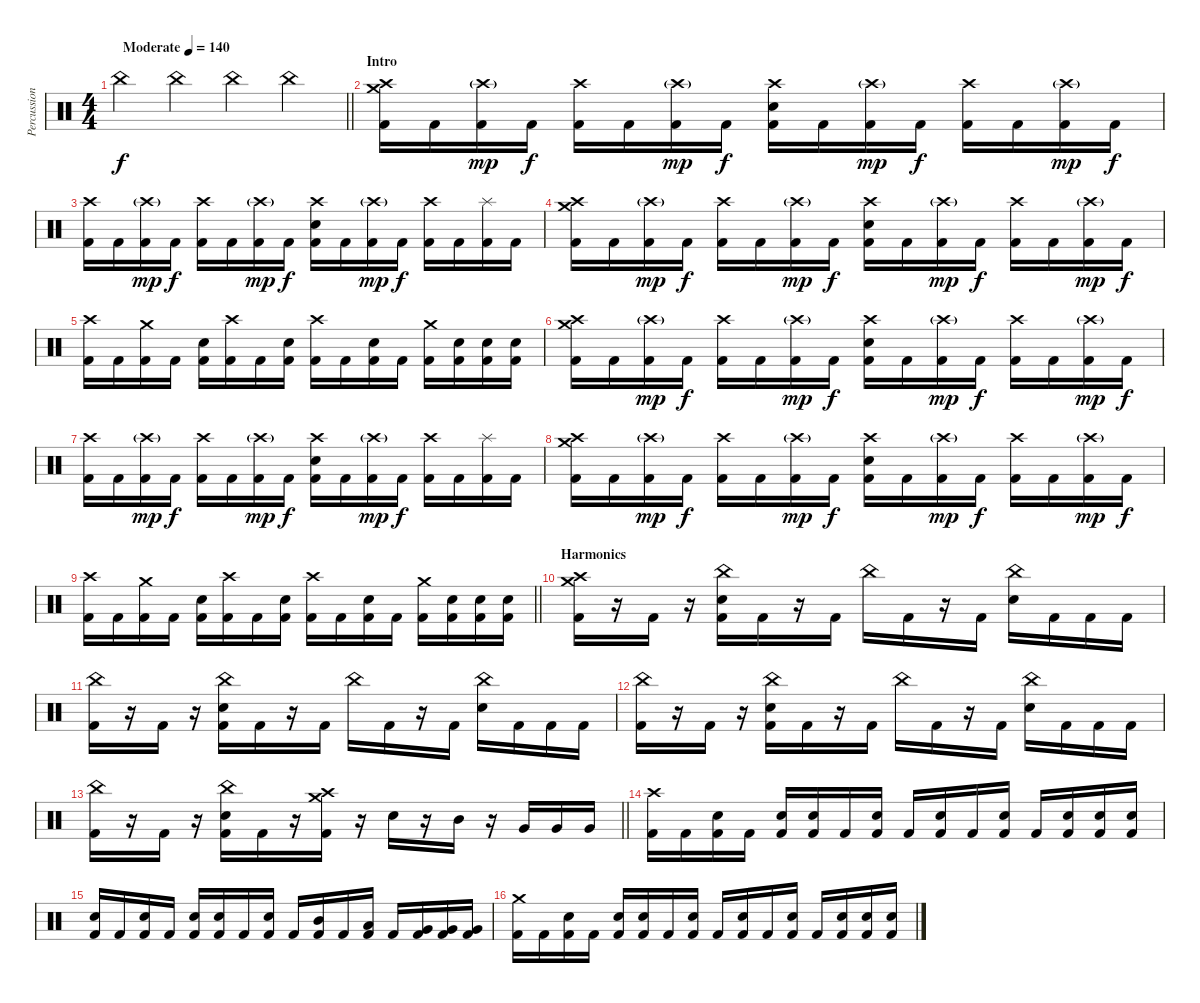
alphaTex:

\track ("Percussion" "Percussion") {instrument percussion}
\staff {score}
\articulation defaults
\ts (4 4)
\tempo (140 "Moderate")
\clef neutral
\barLineRight lightlight
\ks c "China (hit)".4{dy f} "China (hit)".4 "China (hit)".4 "China (hit)".4
|
\section ("" "Intro")
("Crash high (hit)" "Crash medium (hit)" "Kick (hit) 2").16 "Kick (hit) 2".16 ("Crash high (hit)"{g} "Kick (hit) 2").16{dy mp} "Kick (hit) 2".16{dy f} ("Crash high (hit)" "Kick (hit) 2").16 "Kick (hit) 2".16 ("Crash high (hit)"{g} "Kick (hit) 2").16{dy mp} "Kick (hit) 2".16{dy f} ("Crash high (hit)" "Electric Snare (hit)" "Kick (hit) 2").16 "Kick (hit) 2".16 ("Crash high (hit)"{g} "Kick (hit) 2").16{dy mp} "Kick (hit) 2".16{dy f} ("Crash high (hit)" "Kick (hit) 2").16 "Kick (hit) 2".16 ("Crash high (hit)"{g} "Kick (hit) 2").16{dy mp} "Kick (hit) 2".16{dy f} |
("Crash high (hit)" "Kick (hit) 2").16 "Kick (hit) 2".16 ("Crash high (hit)"{g} "Kick (hit) 2").16{dy mp} "Kick (hit) 2".16{dy f} ("Crash high (hit)" "Kick (hit) 2").16 "Kick (hit) 2".16 ("Crash high (hit)"{g} "Kick (hit) 2").16{dy mp} "Kick (hit) 2".16{dy f} ("Crash high (hit)" "Electric Snare (hit)" "Kick (hit) 2").16 "Kick (hit) 2".16 ("Crash high (hit)"{g} "Kick (hit) 2").16{dy mp} "Kick (hit) 2".16{dy f} ("Crash high (hit)" "Kick (hit) 2").16 "Kick (hit) 2".16 ("Splash (hit)" "Kick (hit) 2").16 "Kick (hit) 2".16 |
("Crash high (hit)" "Crash medium (hit)" "Kick (hit) 2").16 "Kick (hit) 2".16 ("Crash high (hit)"{g} "Kick (hit) 2").16{dy mp} "Kick (hit) 2".16{dy f} ("Crash high (hit)" "Kick (hit) 2").16 "Kick (hit) 2".16 ("Crash high (hit)"{g} "Kick (hit) 2").16{dy mp} "Kick (hit) 2".16{dy f} ("Crash high (hit)" "Electric Snare (hit)" "Kick (hit) 2").16 "Kick (hit) 2".16 ("Crash high (hit)"{g} "Kick (hit) 2").16{dy mp} "Kick (hit) 2".16{dy f} ("Crash high (hit)" "Kick (hit) 2").16 "Kick (hit) 2".16 ("Crash high (hit)"{g} "Kick (hit) 2").16{dy mp} "Kick (hit) 2".16{dy f} |
("Crash high (hit)" "Kick (hit) 2").16 "Kick (hit) 2".16 ("Crash medium (hit)" "Kick (hit) 2").16 "Kick (hit) 2".16 ("Electric Snare (hit)" "Kick (hit) 2").16 ("Crash high (hit)" "Kick (hit) 2").16 "Kick (hit) 2".16 ("Electric Snare (hit)" "Kick (hit) 2").16 ("Crash high (hit)" "Kick (hit) 2").16 "Kick (hit) 2".16 ("Electric Snare (hit)" "Kick (hit) 2").16 "Kick (hit) 2".16 ("Crash medium (hit)" "Kick (hit) 2").16 ("Electric Snare (hit)" "Kick (hit) 2").16 ("Electric Snare (hit)" "Kick (hit) 2").16 ("Electric Snare (hit)" "Kick (hit) 2").16 |
("Crash high (hit)" "Crash medium (hit)" "Kick (hit) 2").16 "Kick (hit) 2".16 ("Crash high (hit)"{g} "Kick (hit) 2").16{dy mp} "Kick (hit) 2".16{dy f} ("Crash high (hit)" "Kick (hit) 2").16 "Kick (hit) 2".16 ("Crash high (hit)"{g} "Kick (hit) 2").16{dy mp} "Kick (hit) 2".16{dy f} ("Crash high (hit)" "Electric Snare (hit)" "Kick (hit) 2").16 "Kick (hit) 2".16 ("Crash high (hit)"{g} "Kick (hit) 2").16{dy mp} "Kick (hit) 2".16{dy f} ("Crash high (hit)" "Kick (hit) 2").16 "Kick (hit) 2".16 ("Crash high (hit)"{g} "Kick (hit) 2").16{dy mp} "Kick (hit) 2".16{dy f} |
("Crash high (hit)" "Kick (hit) 2").16 "Kick (hit) 2".16 ("Crash high (hit)"{g} "Kick (hit) 2").16{dy mp} "Kick (hit) 2".16{dy f} ("Crash high (hit)" "Kick (hit) 2").16 "Kick (hit) 2".16 ("Crash high (hit)"{g} "Kick (hit) 2").16{dy mp} "Kick (hit) 2".16{dy f} ("Crash high (hit)" "Electric Snare (hit)" "Kick (hit) 2").16 "Kick (hit) 2".16 ("Crash high (hit)"{g} "Kick (hit) 2").16{dy mp} "Kick (hit) 2".16{dy f} ("Crash high (hit)" "Kick (hit) 2").16 "Kick (hit) 2".16 ("Splash (hit)" "Kick (hit) 2").16 "Kick (hit) 2".16 |
("Crash high (hit)" "Crash medium (hit)" "Kick (hit) 2").16 "Kick (hit) 2".16 ("Crash high (hit)"{g} "Kick (hit) 2").16{dy mp} "Kick (hit) 2".16{dy f} ("Crash high (hit)" "Kick (hit) 2").16 "Kick (hit) 2".16 ("Crash high (hit)"{g} "Kick (hit) 2").16{dy mp} "Kick (hit) 2".16{dy f} ("Crash high (hit)" "Electric Snare (hit)" "Kick (hit) 2").16 "Kick (hit) 2".16 ("Crash high (hit)"{g} "Kick (hit) 2").16{dy mp} "Kick (hit) 2".16{dy f} ("Crash high (hit)" "Kick (hit) 2").16 "Kick (hit) 2".16 ("Crash high (hit)"{g} "Kick (hit) 2").16{dy mp} "Kick (hit) 2".16{dy f} |
\barLineRight lightlight
("Crash high (hit)" "Kick (hit) 2").16 "Kick (hit) 2".16 ("Crash medium (hit)" "Kick (hit) 2").16 "Kick (hit) 2".16 ("Electric Snare (hit)" "Kick (hit) 2").16 ("Crash high (hit)" "Kick (hit) 2").16 "Kick (hit) 2".16 ("Electric Snare (hit)" "Kick (hit) 2").16 ("Crash high (hit)" "Kick (hit) 2").16 "Kick (hit) 2".16 ("Electric Snare (hit)" "Kick (hit) 2").16 "Kick (hit) 2".16 ("Crash medium (hit)" "Kick (hit) 2").16 ("Electric Snare (hit)" "Kick (hit) 2").16 ("Electric Snare (hit)" "Kick (hit) 2").16 ("Electric Snare (hit)" "Kick (hit) 2").16 |
\section ("" "Harmonics")
("Crash high (hit)" "Crash medium (hit)" "Kick (hit) 2").16 r.16 "Kick (hit) 2".16 r.16 ("China (hit)" "Electric Snare (hit)" "Kick (hit) 2").16 "Kick (hit) 2".16 r.16 "Kick (hit) 2".16 "China (hit)".16 "Kick (hit) 2".16 r.16 "Kick (hit) 2".16 ("China (hit)" "Electric Snare (hit)").16 "Kick (hit) 2".16 "Kick (hit) 2".16 "Kick (hit) 2".16 |
("China (hit)" "Kick (hit) 2").16 r.16 "Kick (hit) 2".16 r.16 ("China (hit)" "Electric Snare (hit)" "Kick (hit) 2").16 "Kick (hit) 2".16 r.16 "Kick (hit) 2".16 "China (hit)".16 "Kick (hit) 2".16 r.16 "Kick (hit) 2".16 ("China (hit)" "Electric Snare (hit)").16 "Kick (hit) 2".16 "Kick (hit) 2".16 "Kick (hit) 2".16 |
("China (hit)" "Kick (hit) 2").16 r.16 "Kick (hit) 2".16 r.16 ("China (hit)" "Electric Snare (hit)" "Kick (hit) 2").16 "Kick (hit) 2".16 r.16 "Kick (hit) 2".16 "China (hit)".16 "Kick (hit) 2".16 r.16 "Kick (hit) 2".16 ("China (hit)" "Electric Snare (hit)").16 "Kick (hit) 2".16 "Kick (hit) 2".16 "Kick (hit) 2".16 |
\barLineRight lightlight
("China (hit)" "Kick (hit) 2").16 r.16 "Kick (hit) 2".16 r.16 ("China (hit)" "Electric Snare (hit)" "Kick (hit) 2").16 "Kick (hit) 2".16 r.16 ("Crash high (hit)" "Crash medium (hit)" "Kick (hit) 2").16 r.16 "Electric Snare (hit)".16 r.16 "Mid Tom (hit)".16 r.16 "Very Low Tom (hit)".16 "Very Low Tom (hit)".16 "Very Low Tom (hit)".16 |
("Crash high (hit)" "Kick (hit) 2").16 "Kick (hit) 2".16 ("Electric Snare (hit)" "Kick (hit) 2").16 "Kick (hit) 2".16 ("Electric Snare (hit)" "Kick (hit) 2").16 ("Electric Snare (hit)" "Kick (hit) 2").16 "Kick (hit) 2".16 ("Electric Snare (hit)" "Kick (hit) 2").16 "Kick (hit) 2".16 ("Electric Snare (hit)" "Kick (hit) 2").16 "Kick (hit) 2".16 ("Electric Snare (hit)" "Kick (hit) 2").16 "Kick (hit) 2".16 ("Electric Snare (hit)" "Kick (hit) 2").16 ("Electric Snare (hit)" "Kick (hit) 2").16 ("Electric Snare (hit)" "Kick (hit) 2").16 |
("Electric Snare (hit)" "Kick (hit) 2").16 "Kick (hit) 2".16 ("Electric Snare (hit)" "Kick (hit) 2").16 "Kick (hit) 2".16 ("Electric Snare (hit)" "Kick (hit) 2").16 ("Electric Snare (hit)" "Kick (hit) 2").16 "Kick (hit) 2".16 ("Electric Snare (hit)" "Kick (hit) 2").16 "Kick (hit) 2".16 ("Mid Tom (hit)" "Kick (hit) 2").16 "Kick (hit) 2".16 ("Low Tom (hit)" "Kick (hit) 2").16 "Kick (hit) 2".16 ("Very Low Tom (hit)" "Kick (hit) 2").16 ("Very Low Tom (hit)" "Kick (hit) 2").16 ("Very Low Tom (hit)" "Kick (hit) 2").16 |
("Crash medium (hit)" "Kick (hit) 2").16 "Kick (hit) 2".16 ("Electric Snare (hit)" "Kick (hit) 2").16 "Kick (hit) 2".16 ("Electric Snare (hit)" "Kick (hit) 2").16 ("Electric Snare (hit)" "Kick (hit) 2").16 "Kick (hit) 2".16 ("Electric Snare (hit)" "Kick (hit) 2").16 "Kick (hit) 2".16 ("Electric Snare (hit)" "Kick (hit) 2").16 "Kick (hit) 2".16 ("Electric Snare (hit)" "Kick (hit) 2").16 "Kick (hit) 2".16 ("Electric Snare (hit)" "Kick (hit) 2").16 ("Electric Snare (hit)" "Kick (hit) 2").16 ("Electric Snare (hit)" "Kick (hit) 2").16
